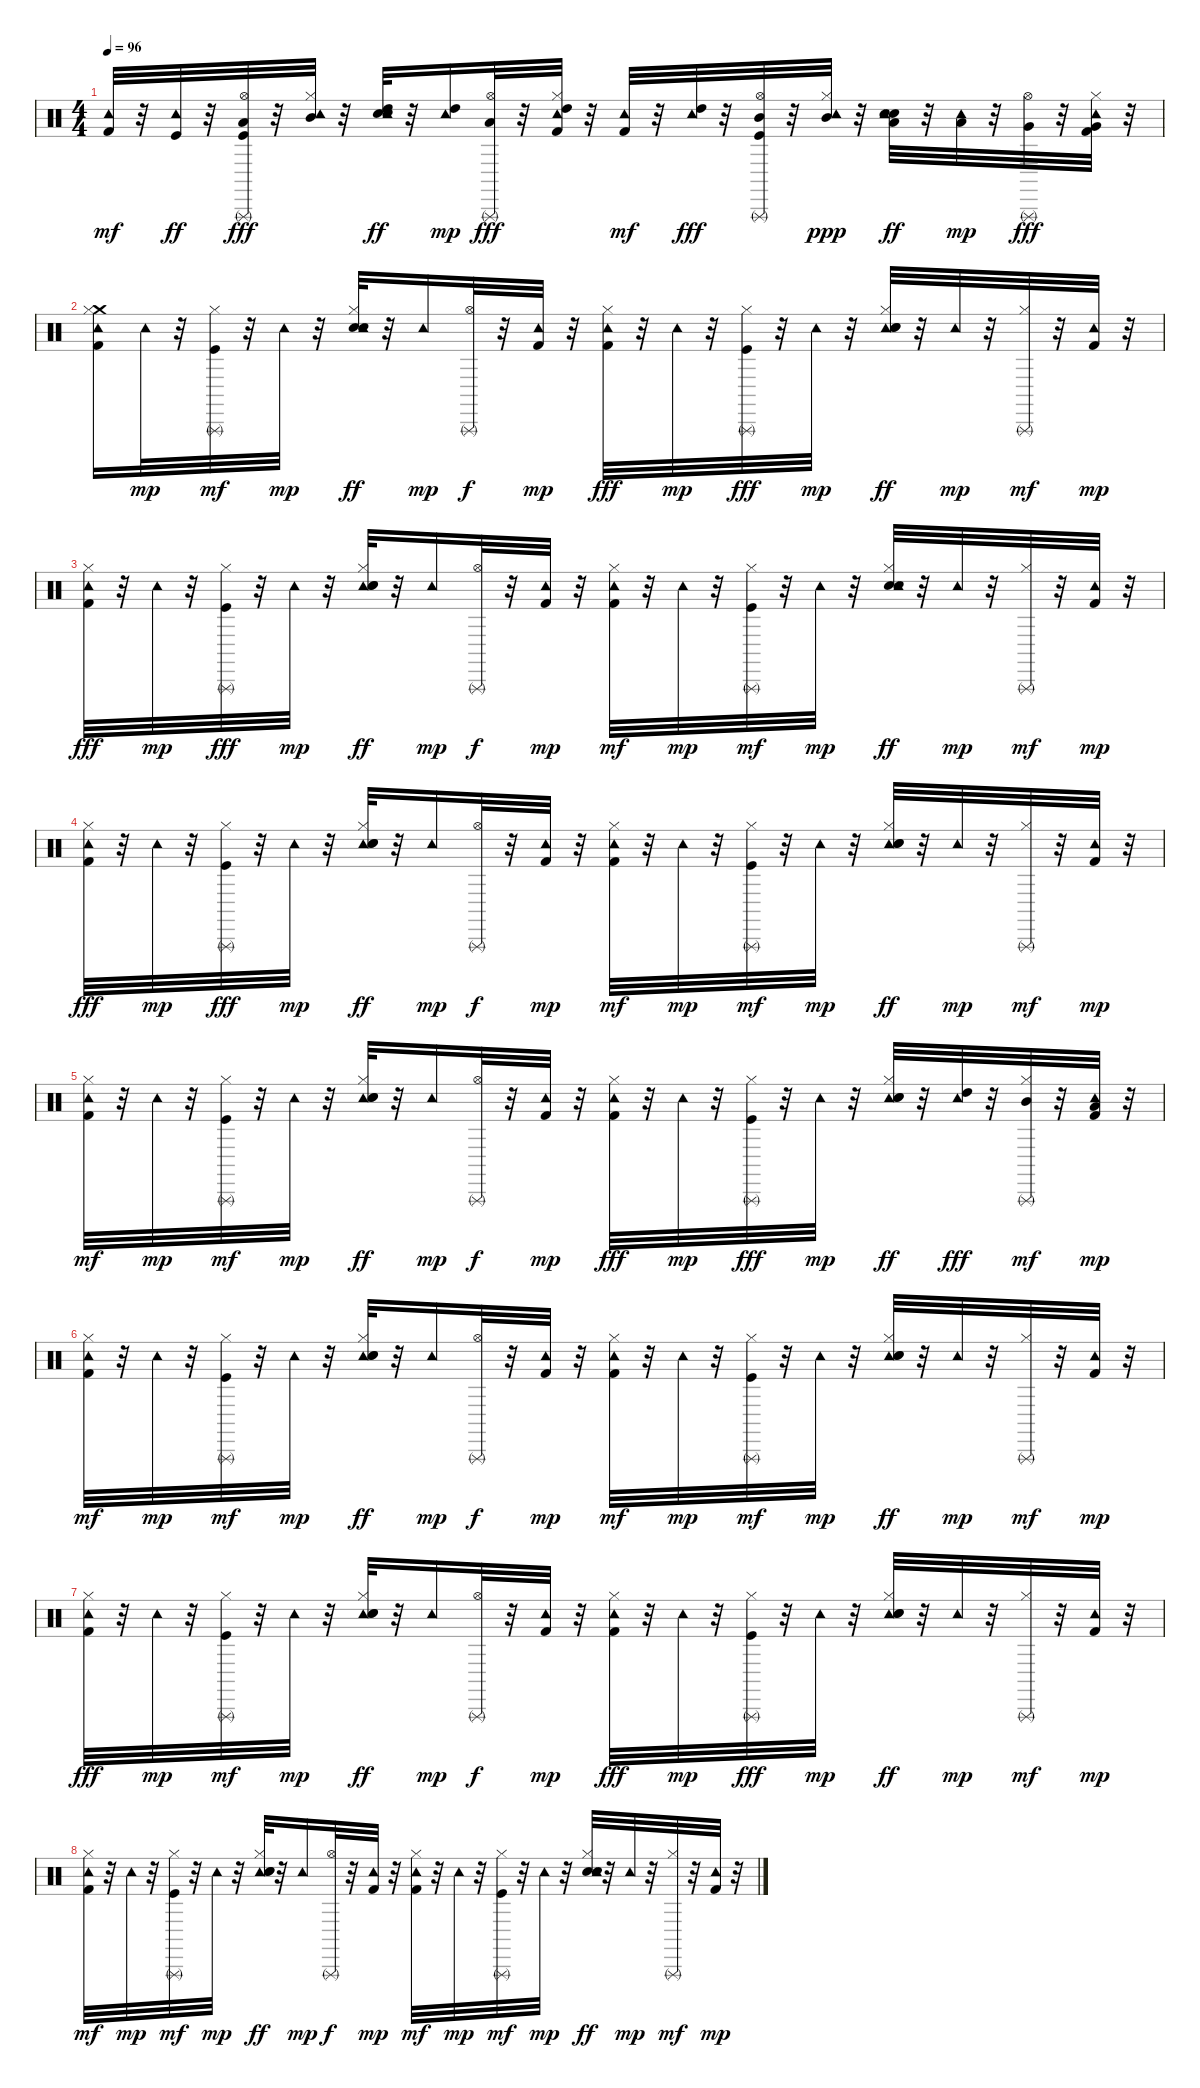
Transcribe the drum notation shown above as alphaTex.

\track "" {instrument percussion}
\staff {score}
\articulation defaults
\ts (4 4)
\tempo 96
\clef neutral
\ks c
("Kick (hit) 2" "Tambourine (hit)").32{dy mf} r.32 ("Tambourine (hit)" "Kick (hit)").32{dy ff} r.32 ("Kick (hit)" "Low Tom (hit)" "Hi-Hat (open)" "Triangle (rnute)").32{dy fff} r.32 ("Hi-Hat (closed)" "Tambourine (hit)" "Mid Tom (hit)").32 r.32 ("Electric Snare (hit)" "High Tom (hit)" "Tambourine (hit)" "Hand Clap (hit)").32{dy ff} r.32 ("High Tom (hit)" "Tambourine (hit)").16{dy mp} ("Hi-Hat (open)" "Triangle (rnute)" "Low Tom (hit)").32{dy fff} r.32 ("Hi-Hat (closed)" "Tambourine (hit)" "High Tom (hit)" "Kick (hit) 2").32 r.32 ("Kick (hit) 2" "Tambourine (hit)").32{dy mf} r.32 ("Tambourine (hit)" "High Tom (hit)").32{dy fff} r.32 ("Mid Tom (hit)" "Hi-Hat (open)" "Kick (hit)" "Triangle (rnute)").32 r.32 ("Tambourine (hit)" "Mid Tom (hit)" "Hi-Hat (closed)").32{dy ppp} r.32 ("Electric Snare (hit)" "Tambourine (hit)" "Low Tom (hit)" "Hand Clap (hit)").32{dy ff} r.32 ("Low Tom (hit)" "Tambourine (hit)").32{dy mp} r.32 ("Hi-Hat (open)" "Very Low Tom (hit)" "Triangle (rnute)").32{dy fff} r.32 ("Kick (hit) 2" "Hi-Hat (closed)" "Tambourine (hit)" "Very Low Tom (hit)").32 r.32 |
("Tambourine (hit)" "Kick (hit) 2" "Crash medium (hit)" "Hi-Hat (closed)").16 "Tambourine (hit)".32{dy mp} r.32 ("Triangle (rnute)" "Kick (hit)" "Hi-Hat (closed)").32{dy mf} r.32 "Tambourine (hit)".32{dy mp} r.32 ("Snare (hit) 2" "Tambourine (hit)" "Hi-Hat (closed)" "Hand Clap (hit)").32{dy ff} r.32 "Tambourine (hit)".16{dy mp} ("Triangle (rnute)" "Hi-Hat (open)").32{dy f} r.32 ("Tambourine (hit)" "Kick (hit) 2").32{dy mp} r.32 ("Tambourine (hit)" "Hi-Hat (closed)" "Kick (hit) 2").32{dy fff} r.32 "Tambourine (hit)".32{dy mp} r.32 ("Hi-Hat (closed)" "Triangle (rnute)" "Kick (hit)").32{dy fff} r.32 "Tambourine (hit)".32{dy mp} r.32 ("Hi-Hat (closed)" "Tambourine (hit)" "Snare (hit) 2" "Hand Clap (hit)").32{dy ff} r.32 "Tambourine (hit)".32{dy mp} r.32 ("Hi-Hat (closed)" "Triangle (rnute)").32{dy mf} r.32 ("Tambourine (hit)" "Kick (hit) 2").32{dy mp} r.32 |
("Tambourine (hit)" "Hi-Hat (closed)" "Kick (hit) 2").32{dy fff} r.32 "Tambourine (hit)".32{dy mp} r.32 ("Hi-Hat (closed)" "Triangle (rnute)" "Kick (hit)").32{dy fff} r.32 "Tambourine (hit)".32{dy mp} r.32 ("Hi-Hat (closed)" "Tambourine (hit)" "Snare (hit) 2" "Hand Clap (hit)").32{dy ff} r.32 "Tambourine (hit)".16{dy mp} ("Hi-Hat (open)" "Triangle (rnute)").32{dy f} r.32 ("Kick (hit) 2" "Tambourine (hit)").32{dy mp} r.32 ("Kick (hit) 2" "Tambourine (hit)" "Hi-Hat (closed)").32{dy mf} r.32 "Tambourine (hit)".32{dy mp} r.32 ("Triangle (rnute)" "Kick (hit)" "Hi-Hat (closed)").32{dy mf} r.32 "Tambourine (hit)".32{dy mp} r.32 ("Snare (hit) 2" "Tambourine (hit)" "Hi-Hat (closed)" "Hand Clap (hit)").32{dy ff} r.32 "Tambourine (hit)".32{dy mp} r.32 ("Triangle (rnute)" "Hi-Hat (closed)").32{dy mf} r.32 ("Tambourine (hit)" "Kick (hit) 2").32{dy mp} r.32 |
("Hi-Hat (closed)" "Tambourine (hit)" "Kick (hit) 2").32{dy fff} r.32 "Tambourine (hit)".32{dy mp} r.32 ("Hi-Hat (closed)" "Kick (hit)" "Triangle (rnute)").32{dy fff} r.32 "Tambourine (hit)".32{dy mp} r.32 ("Hi-Hat (closed)" "Tambourine (hit)" "Snare (hit) 2" "Hand Clap (hit)").32{dy ff} r.32 "Tambourine (hit)".16{dy mp} ("Triangle (rnute)" "Hi-Hat (open)").32{dy f} r.32 ("Tambourine (hit)" "Kick (hit) 2").32{dy mp} r.32 ("Kick (hit) 2" "Tambourine (hit)" "Hi-Hat (closed)").32{dy mf} r.32 "Tambourine (hit)".32{dy mp} r.32 ("Triangle (rnute)" "Kick (hit)" "Hi-Hat (closed)").32{dy mf} r.32 "Tambourine (hit)".32{dy mp} r.32 ("Tambourine (hit)" "Hi-Hat (closed)" "Snare (hit) 2" "Hand Clap (hit)").32{dy ff} r.32 "Tambourine (hit)".32{dy mp} r.32 ("Hi-Hat (closed)" "Triangle (rnute)").32{dy mf} r.32 ("Tambourine (hit)" "Kick (hit) 2").32{dy mp} r.32 |
("Hi-Hat (closed)" "Kick (hit) 2" "Tambourine (hit)").32{dy mf} r.32 "Tambourine (hit)".32{dy mp} r.32 ("Kick (hit)" "Hi-Hat (closed)" "Triangle (rnute)").32{dy mf} r.32 "Tambourine (hit)".32{dy mp} r.32 ("Tambourine (hit)" "Hi-Hat (closed)" "Snare (hit) 2" "Hand Clap (hit)").32{dy ff} r.32 "Tambourine (hit)".16{dy mp} ("Hi-Hat (open)" "Triangle (rnute)").32{dy f} r.32 ("Tambourine (hit)" "Kick (hit) 2").32{dy mp} r.32 ("Hi-Hat (closed)" "Tambourine (hit)" "Kick (hit) 2").32{dy fff} r.32 "Tambourine (hit)".32{dy mp} r.32 ("Hi-Hat (closed)" "Kick (hit)" "Triangle (rnute)").32{dy fff} r.32 "Tambourine (hit)".32{dy mp} r.32 ("Tambourine (hit)" "Snare (hit) 2" "Hi-Hat (closed)" "Hand Clap (hit)").32{dy ff} r.32 ("Tambourine (hit)" "High Tom (hit)").32{dy fff} r.32 ("Triangle (rnute)" "Mid Tom (hit)" "Hi-Hat (closed)").32{dy mf} r.32 ("Kick (hit) 2" "Low Tom (hit)" "Tambourine (hit)").32{dy mp} r.32 |
("Kick (hit) 2" "Tambourine (hit)" "Hi-Hat (closed)").32{dy mf} r.32 "Tambourine (hit)".32{dy mp} r.32 ("Kick (hit)" "Hi-Hat (closed)" "Triangle (rnute)").32{dy mf} r.32 "Tambourine (hit)".32{dy mp} r.32 ("Hi-Hat (closed)" "Tambourine (hit)" "Snare (hit) 2" "Hand Clap (hit)").32{dy ff} r.32 "Tambourine (hit)".16{dy mp} ("Hi-Hat (open)" "Triangle (rnute)").32{dy f} r.32 ("Tambourine (hit)" "Kick (hit) 2").32{dy mp} r.32 ("Hi-Hat (closed)" "Kick (hit) 2" "Tambourine (hit)").32{dy mf} r.32 "Tambourine (hit)".32{dy mp} r.32 ("Kick (hit)" "Triangle (rnute)" "Hi-Hat (closed)").32{dy mf} r.32 "Tambourine (hit)".32{dy mp} r.32 ("Tambourine (hit)" "Hi-Hat (closed)" "Snare (hit) 2" "Hand Clap (hit)").32{dy ff} r.32 "Tambourine (hit)".32{dy mp} r.32 ("Triangle (rnute)" "Hi-Hat (closed)").32{dy mf} r.32 ("Tambourine (hit)" "Kick (hit) 2").32{dy mp} r.32 |
("Hi-Hat (closed)" "Tambourine (hit)" "Kick (hit) 2").32{dy fff} r.32 "Tambourine (hit)".32{dy mp} r.32 ("Triangle (rnute)" "Kick (hit)" "Hi-Hat (closed)").32{dy mf} r.32 "Tambourine (hit)".32{dy mp} r.32 ("Tambourine (hit)" "Snare (hit) 2" "Hi-Hat (closed)" "Hand Clap (hit)").32{dy ff} r.32 "Tambourine (hit)".16{dy mp} ("Triangle (rnute)" "Hi-Hat (open)").32{dy f} r.32 ("Kick (hit) 2" "Tambourine (hit)").32{dy mp} r.32 ("Tambourine (hit)" "Kick (hit) 2" "Hi-Hat (closed)").32{dy fff} r.32 "Tambourine (hit)".32{dy mp} r.32 ("Hi-Hat (closed)" "Kick (hit)" "Triangle (rnute)").32{dy fff} r.32 "Tambourine (hit)".32{dy mp} r.32 ("Tambourine (hit)" "Snare (hit) 2" "Hi-Hat (closed)" "Hand Clap (hit)").32{dy ff} r.32 "Tambourine (hit)".32{dy mp} r.32 ("Hi-Hat (closed)" "Triangle (rnute)").32{dy mf} r.32 ("Kick (hit) 2" "Tambourine (hit)").32{dy mp} r.32 |
("Kick (hit) 2" "Hi-Hat (closed)" "Tambourine (hit)").32{dy mf} r.32 "Tambourine (hit)".32{dy mp} r.32 ("Kick (hit)" "Triangle (rnute)" "Hi-Hat (closed)").32{dy mf} r.32 "Tambourine (hit)".32{dy mp} r.32 ("Tambourine (hit)" "Hi-Hat (closed)" "Snare (hit) 2" "Hand Clap (hit)").32{dy ff} r.32 "Tambourine (hit)".16{dy mp} ("Hi-Hat (open)" "Triangle (rnute)").32{dy f} r.32 ("Kick (hit) 2" "Tambourine (hit)").32{dy mp} r.32 ("Kick (hit) 2" "Tambourine (hit)" "Hi-Hat (closed)").32{dy mf} r.32 "Tambourine (hit)".32{dy mp} r.32 ("Kick (hit)" "Triangle (rnute)" "Hi-Hat (closed)").32{dy mf} r.32 "Tambourine (hit)".32{dy mp} r.32 ("Snare (hit) 2" "Tambourine (hit)" "Hi-Hat (closed)" "Hand Clap (hit)").32{dy ff} r.32 "Tambourine (hit)".32{dy mp} r.32 ("Hi-Hat (closed)" "Triangle (rnute)").32{dy mf} r.32 ("Kick (hit) 2" "Tambourine (hit)").32{dy mp} r.32
